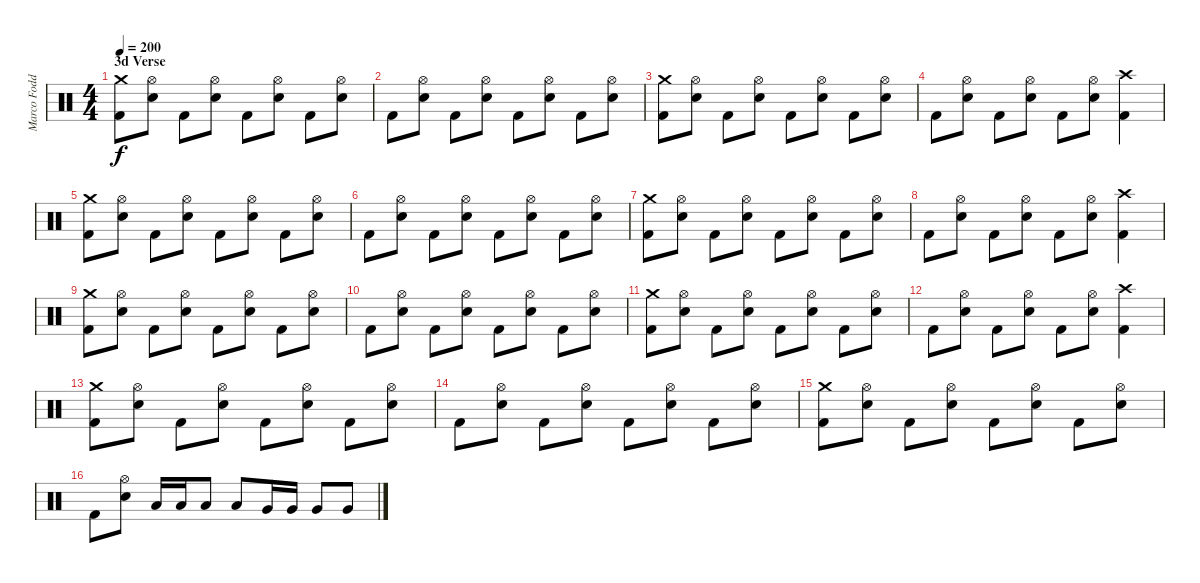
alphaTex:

\track ("Marco Foddis " "Marco Fodd") {instrument percussion}
\staff {score}
\articulation defaults
\ts (4 4)
\section ("" "3d Verse")
\tempo 200
\clef neutral
\ks c
("Crash medium (hit)" "Kick (hit) 2").8{dy f} ("Hi-Hat (open)" "Electric Snare (hit)").8 "Kick (hit) 2".8 ("Hi-Hat (open)" "Electric Snare (hit)").8 "Kick (hit) 2".8 ("Hi-Hat (open)" "Electric Snare (hit)").8 "Kick (hit) 2".8 ("Hi-Hat (open)" "Electric Snare (hit)").8 |
"Kick (hit) 2".8 ("Hi-Hat (open)" "Electric Snare (hit)").8 "Kick (hit) 2".8 ("Hi-Hat (open)" "Electric Snare (hit)").8 "Kick (hit) 2".8 ("Hi-Hat (open)" "Electric Snare (hit)").8 "Kick (hit) 2".8 ("Hi-Hat (open)" "Electric Snare (hit)").8 |
("Crash medium (hit)" "Kick (hit) 2").8 ("Hi-Hat (open)" "Electric Snare (hit)").8 "Kick (hit) 2".8 ("Hi-Hat (open)" "Electric Snare (hit)").8 "Kick (hit) 2".8 ("Hi-Hat (open)" "Electric Snare (hit)").8 "Kick (hit) 2".8 ("Hi-Hat (open)" "Electric Snare (hit)").8 |
"Kick (hit) 2".8 ("Hi-Hat (open)" "Electric Snare (hit)").8 "Kick (hit) 2".8 ("Hi-Hat (open)" "Electric Snare (hit)").8 "Kick (hit) 2".8 ("Hi-Hat (open)" "Electric Snare (hit)").8 ("Crash high (hit)" "Kick (hit) 2").4 |
("Crash medium (hit)" "Kick (hit) 2").8 ("Hi-Hat (open)" "Electric Snare (hit)").8 "Kick (hit) 2".8 ("Hi-Hat (open)" "Electric Snare (hit)").8 "Kick (hit) 2".8 ("Hi-Hat (open)" "Electric Snare (hit)").8 "Kick (hit) 2".8 ("Hi-Hat (open)" "Electric Snare (hit)").8 |
"Kick (hit) 2".8 ("Hi-Hat (open)" "Electric Snare (hit)").8 "Kick (hit) 2".8 ("Hi-Hat (open)" "Electric Snare (hit)").8 "Kick (hit) 2".8 ("Hi-Hat (open)" "Electric Snare (hit)").8 "Kick (hit) 2".8 ("Hi-Hat (open)" "Electric Snare (hit)").8 |
("Crash medium (hit)" "Kick (hit) 2").8 ("Hi-Hat (open)" "Electric Snare (hit)").8 "Kick (hit) 2".8 ("Hi-Hat (open)" "Electric Snare (hit)").8 "Kick (hit) 2".8 ("Hi-Hat (open)" "Electric Snare (hit)").8 "Kick (hit) 2".8 ("Hi-Hat (open)" "Electric Snare (hit)").8 |
"Kick (hit) 2".8 ("Hi-Hat (open)" "Electric Snare (hit)").8 "Kick (hit) 2".8 ("Hi-Hat (open)" "Electric Snare (hit)").8 "Kick (hit) 2".8 ("Hi-Hat (open)" "Electric Snare (hit)").8 ("Crash high (hit)" "Kick (hit) 2").4 |
("Crash medium (hit)" "Kick (hit) 2").8 ("Hi-Hat (open)" "Electric Snare (hit)").8 "Kick (hit) 2".8 ("Hi-Hat (open)" "Electric Snare (hit)").8 "Kick (hit) 2".8 ("Hi-Hat (open)" "Electric Snare (hit)").8 "Kick (hit) 2".8 ("Hi-Hat (open)" "Electric Snare (hit)").8 |
"Kick (hit) 2".8 ("Hi-Hat (open)" "Electric Snare (hit)").8 "Kick (hit) 2".8 ("Hi-Hat (open)" "Electric Snare (hit)").8 "Kick (hit) 2".8 ("Hi-Hat (open)" "Electric Snare (hit)").8 "Kick (hit) 2".8 ("Hi-Hat (open)" "Electric Snare (hit)").8 |
("Crash medium (hit)" "Kick (hit) 2").8 ("Hi-Hat (open)" "Electric Snare (hit)").8 "Kick (hit) 2".8 ("Hi-Hat (open)" "Electric Snare (hit)").8 "Kick (hit) 2".8 ("Hi-Hat (open)" "Electric Snare (hit)").8 "Kick (hit) 2".8 ("Hi-Hat (open)" "Electric Snare (hit)").8 |
"Kick (hit) 2".8 ("Hi-Hat (open)" "Electric Snare (hit)").8 "Kick (hit) 2".8 ("Hi-Hat (open)" "Electric Snare (hit)").8 "Kick (hit) 2".8 ("Hi-Hat (open)" "Electric Snare (hit)").8 ("Crash high (hit)" "Kick (hit) 2").4 |
("Crash medium (hit)" "Kick (hit) 2").8 ("Hi-Hat (open)" "Electric Snare (hit)").8 "Kick (hit) 2".8 ("Hi-Hat (open)" "Electric Snare (hit)").8 "Kick (hit) 2".8 ("Hi-Hat (open)" "Electric Snare (hit)").8 "Kick (hit) 2".8 ("Hi-Hat (open)" "Electric Snare (hit)").8 |
"Kick (hit) 2".8 ("Hi-Hat (open)" "Electric Snare (hit)").8 "Kick (hit) 2".8 ("Hi-Hat (open)" "Electric Snare (hit)").8 "Kick (hit) 2".8 ("Hi-Hat (open)" "Electric Snare (hit)").8 "Kick (hit) 2".8 ("Hi-Hat (open)" "Electric Snare (hit)").8 |
("Crash medium (hit)" "Kick (hit) 2").8 ("Hi-Hat (open)" "Electric Snare (hit)").8 "Kick (hit) 2".8 ("Hi-Hat (open)" "Electric Snare (hit)").8 "Kick (hit) 2".8 ("Hi-Hat (open)" "Electric Snare (hit)").8 "Kick (hit) 2".8 ("Hi-Hat (open)" "Electric Snare (hit)").8 |
"Kick (hit) 2".8 ("Hi-Hat (open)" "Electric Snare (hit)").8 "Low Tom (hit)".16 "Low Tom (hit)".16 "Low Tom (hit)".8 "Low Tom (hit)".8 "Very Low Tom (hit)".16 "Very Low Tom (hit)".16 "Very Low Tom (hit)".8 "Very Low Tom (hit)".8
